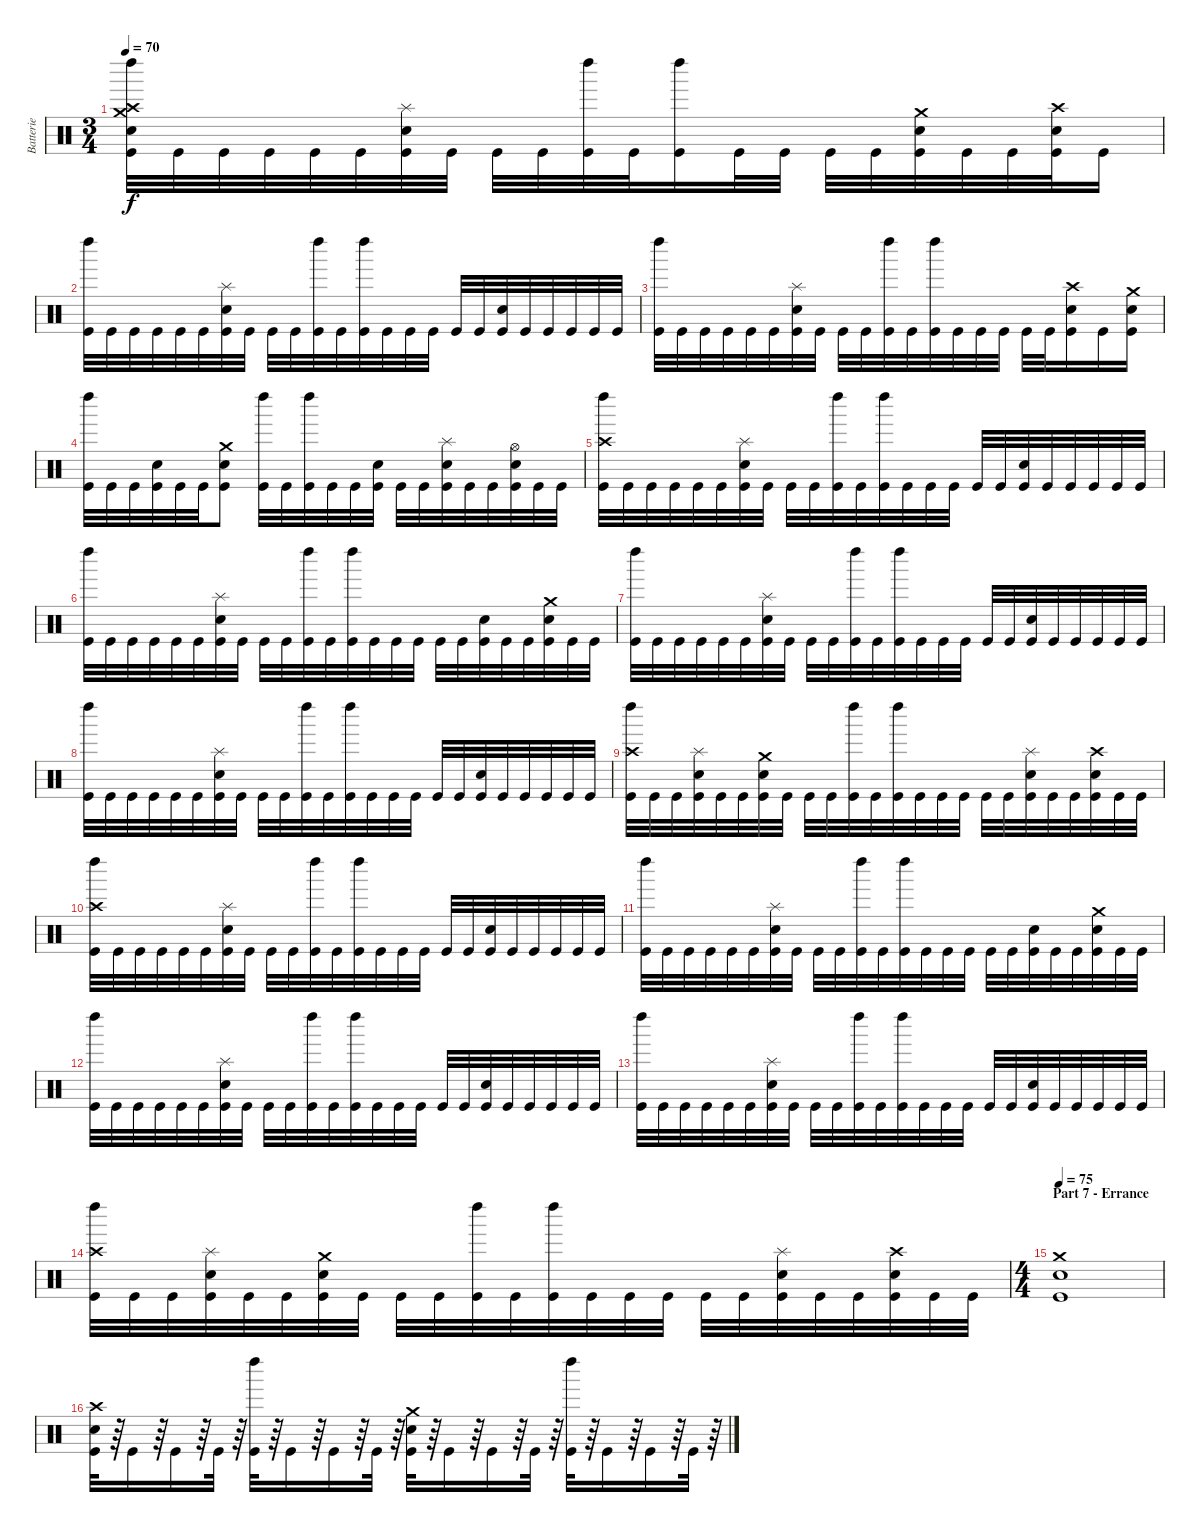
\track ("Batterie" "Batterie") {instrument percussion}
\staff {score}
\articulation defaults
\ts (3 4)
\tempo 70
\clef neutral
\ks c
("Kick (hit)" "Electric Snare (hit)" "Left Maraca (hit)" "Crash high (hit)" "Crash medium (hit)").32{dy f} "Kick (hit)".32 "Kick (hit)".32 "Kick (hit)".32 "Kick (hit)".32 "Kick (hit)".32 ("Kick (hit)" "Electric Snare (hit)" "Splash (hit)").32 "Kick (hit)".32 "Kick (hit)".32 "Kick (hit)".32 ("Kick (hit)" "Left Maraca (hit)").32 "Kick (hit)".32 ("Kick (hit)" "Left Maraca (hit)").16 "Kick (hit)".32 "Kick (hit)".32 "Kick (hit)".32 "Kick (hit)".32 ("Kick (hit)" "Electric Snare (hit)" "Crash medium (hit)").32 "Kick (hit)".32 "Kick (hit)".32 ("Kick (hit)" "Electric Snare (hit)" "Crash high (hit)").32 "Kick (hit)".16 |
("Kick (hit)" "Left Maraca (hit)").32 "Kick (hit)".32 "Kick (hit)".32 "Kick (hit)".32 "Kick (hit)".32 "Kick (hit)".32 ("Kick (hit)" "Electric Snare (hit)" "Splash (hit)").32 "Kick (hit)".32 "Kick (hit)".32 "Kick (hit)".32 ("Kick (hit)" "Left Maraca (hit)").32 "Kick (hit)".32 ("Kick (hit)" "Left Maraca (hit)").32 "Kick (hit)".32 "Kick (hit)".32 "Kick (hit)".32 "Kick (hit)".32 "Kick (hit)".32 ("Kick (hit)" "Electric Snare (hit)").32 "Kick (hit)".32 "Kick (hit)".32 "Kick (hit)".32 "Kick (hit)".32 "Kick (hit)".32 |
("Kick (hit)" "Left Maraca (hit)").32 "Kick (hit)".32 "Kick (hit)".32 "Kick (hit)".32 "Kick (hit)".32 "Kick (hit)".32 ("Kick (hit)" "Electric Snare (hit)" "Splash (hit)").32 "Kick (hit)".32 "Kick (hit)".32 "Kick (hit)".32 ("Kick (hit)" "Left Maraca (hit)").32 "Kick (hit)".32 ("Kick (hit)" "Left Maraca (hit)").32 "Kick (hit)".32 "Kick (hit)".32 "Kick (hit)".32 "Kick (hit)".32 "Kick (hit)".32 ("Kick (hit)" "Electric Snare (hit)" "Crash high (hit)").16 "Kick (hit)".16 ("Kick (hit)" "Electric Snare (hit)" "Crash medium (hit)").16 |
("Kick (hit)" "Left Maraca (hit)").32 "Kick (hit)".32 "Kick (hit)".32 ("Kick (hit)" "Electric Snare (hit)").32 "Kick (hit)".32 "Kick (hit)".32 ("Kick (hit)" "Electric Snare (hit)" "Crash medium (hit)").8 ("Kick (hit)" "Left Maraca (hit)").32 "Kick (hit)".32 ("Kick (hit)" "Left Maraca (hit)").32 "Kick (hit)".32 "Kick (hit)".32 ("Kick (hit)" "Electric Snare (hit)").32 "Kick (hit)".32 "Kick (hit)".32 ("Kick (hit)" "Electric Snare (hit)" "Splash (hit)").32 "Kick (hit)".32 "Kick (hit)".32 ("Kick (hit)" "Electric Snare (hit)" "Hi-Hat (open)").32 "Kick (hit)".32 "Kick (hit)".32 |
("Kick (hit)" "Left Maraca (hit)" "Crash high (hit)").32 "Kick (hit)".32 "Kick (hit)".32 "Kick (hit)".32 "Kick (hit)".32 "Kick (hit)".32 ("Kick (hit)" "Electric Snare (hit)" "Splash (hit)").32 "Kick (hit)".32 "Kick (hit)".32 "Kick (hit)".32 ("Kick (hit)" "Left Maraca (hit)").32 "Kick (hit)".32 ("Kick (hit)" "Left Maraca (hit)").32 "Kick (hit)".32 "Kick (hit)".32 "Kick (hit)".32 "Kick (hit)".32 "Kick (hit)".32 ("Kick (hit)" "Electric Snare (hit)").32 "Kick (hit)".32 "Kick (hit)".32 "Kick (hit)".32 "Kick (hit)".32 "Kick (hit)".32 |
("Kick (hit)" "Left Maraca (hit)").32 "Kick (hit)".32 "Kick (hit)".32 "Kick (hit)".32 "Kick (hit)".32 "Kick (hit)".32 ("Kick (hit)" "Electric Snare (hit)" "Splash (hit)").32 "Kick (hit)".32 "Kick (hit)".32 "Kick (hit)".32 ("Kick (hit)" "Left Maraca (hit)").32 "Kick (hit)".32 ("Kick (hit)" "Left Maraca (hit)").32 "Kick (hit)".32 "Kick (hit)".32 "Kick (hit)".32 "Kick (hit)".32 "Kick (hit)".32 ("Kick (hit)" "Electric Snare (hit)").32 "Kick (hit)".32 "Kick (hit)".32 ("Kick (hit)" "Electric Snare (hit)" "Crash medium (hit)").32 "Kick (hit)".32 "Kick (hit)".32 |
("Kick (hit)" "Left Maraca (hit)").32 "Kick (hit)".32 "Kick (hit)".32 "Kick (hit)".32 "Kick (hit)".32 "Kick (hit)".32 ("Kick (hit)" "Electric Snare (hit)" "Splash (hit)").32 "Kick (hit)".32 "Kick (hit)".32 "Kick (hit)".32 ("Kick (hit)" "Left Maraca (hit)").32 "Kick (hit)".32 ("Kick (hit)" "Left Maraca (hit)").32 "Kick (hit)".32 "Kick (hit)".32 "Kick (hit)".32 "Kick (hit)".32 "Kick (hit)".32 ("Kick (hit)" "Electric Snare (hit)").32 "Kick (hit)".32 "Kick (hit)".32 "Kick (hit)".32 "Kick (hit)".32 "Kick (hit)".32 |
("Kick (hit)" "Left Maraca (hit)").32 "Kick (hit)".32 "Kick (hit)".32 "Kick (hit)".32 "Kick (hit)".32 "Kick (hit)".32 ("Kick (hit)" "Electric Snare (hit)" "Splash (hit)").32 "Kick (hit)".32 "Kick (hit)".32 "Kick (hit)".32 ("Kick (hit)" "Left Maraca (hit)").32 "Kick (hit)".32 ("Kick (hit)" "Left Maraca (hit)").32 "Kick (hit)".32 "Kick (hit)".32 "Kick (hit)".32 "Kick (hit)".32 "Kick (hit)".32 ("Kick (hit)" "Electric Snare (hit)").32 "Kick (hit)".32 "Kick (hit)".32 "Kick (hit)".32 "Kick (hit)".32 "Kick (hit)".32 |
("Kick (hit)" "Left Maraca (hit)" "Crash high (hit)").32 "Kick (hit)".32 "Kick (hit)".32 ("Kick (hit)" "Electric Snare (hit)" "Splash (hit)").32 "Kick (hit)".32 "Kick (hit)".32 ("Kick (hit)" "Electric Snare (hit)" "Crash medium (hit)").32 "Kick (hit)".32 "Kick (hit)".32 "Kick (hit)".32 ("Kick (hit)" "Left Maraca (hit)").32 "Kick (hit)".32 ("Kick (hit)" "Left Maraca (hit)").32 "Kick (hit)".32 "Kick (hit)".32 "Kick (hit)".32 "Kick (hit)".32 "Kick (hit)".32 ("Kick (hit)" "Electric Snare (hit)" "Splash (hit)").32 "Kick (hit)".32 "Kick (hit)".32 ("Kick (hit)" "Electric Snare (hit)" "Crash high (hit)").32 "Kick (hit)".32 "Kick (hit)".32 |
("Kick (hit)" "Left Maraca (hit)" "Crash high (hit)").32 "Kick (hit)".32 "Kick (hit)".32 "Kick (hit)".32 "Kick (hit)".32 "Kick (hit)".32 ("Kick (hit)" "Electric Snare (hit)" "Splash (hit)").32 "Kick (hit)".32 "Kick (hit)".32 "Kick (hit)".32 ("Kick (hit)" "Left Maraca (hit)").32 "Kick (hit)".32 ("Kick (hit)" "Left Maraca (hit)").32 "Kick (hit)".32 "Kick (hit)".32 "Kick (hit)".32 "Kick (hit)".32 "Kick (hit)".32 ("Kick (hit)" "Electric Snare (hit)").32 "Kick (hit)".32 "Kick (hit)".32 "Kick (hit)".32 "Kick (hit)".32 "Kick (hit)".32 |
("Kick (hit)" "Left Maraca (hit)").32 "Kick (hit)".32 "Kick (hit)".32 "Kick (hit)".32 "Kick (hit)".32 "Kick (hit)".32 ("Kick (hit)" "Electric Snare (hit)" "Splash (hit)").32 "Kick (hit)".32 "Kick (hit)".32 "Kick (hit)".32 ("Kick (hit)" "Left Maraca (hit)").32 "Kick (hit)".32 ("Kick (hit)" "Left Maraca (hit)").32 "Kick (hit)".32 "Kick (hit)".32 "Kick (hit)".32 "Kick (hit)".32 "Kick (hit)".32 ("Kick (hit)" "Electric Snare (hit)").32 "Kick (hit)".32 "Kick (hit)".32 ("Kick (hit)" "Electric Snare (hit)" "Crash medium (hit)").32 "Kick (hit)".32 "Kick (hit)".32 |
("Kick (hit)" "Left Maraca (hit)").32 "Kick (hit)".32 "Kick (hit)".32 "Kick (hit)".32 "Kick (hit)".32 "Kick (hit)".32 ("Kick (hit)" "Electric Snare (hit)" "Splash (hit)").32 "Kick (hit)".32 "Kick (hit)".32 "Kick (hit)".32 ("Kick (hit)" "Left Maraca (hit)").32 "Kick (hit)".32 ("Kick (hit)" "Left Maraca (hit)").32 "Kick (hit)".32 "Kick (hit)".32 "Kick (hit)".32 "Kick (hit)".32 "Kick (hit)".32 ("Kick (hit)" "Electric Snare (hit)").32 "Kick (hit)".32 "Kick (hit)".32 "Kick (hit)".32 "Kick (hit)".32 "Kick (hit)".32 |
("Kick (hit)" "Left Maraca (hit)").32 "Kick (hit)".32 "Kick (hit)".32 "Kick (hit)".32 "Kick (hit)".32 "Kick (hit)".32 ("Kick (hit)" "Electric Snare (hit)" "Splash (hit)").32 "Kick (hit)".32 "Kick (hit)".32 "Kick (hit)".32 ("Kick (hit)" "Left Maraca (hit)").32 "Kick (hit)".32 ("Kick (hit)" "Left Maraca (hit)").32 "Kick (hit)".32 "Kick (hit)".32 "Kick (hit)".32 "Kick (hit)".32 "Kick (hit)".32 ("Kick (hit)" "Electric Snare (hit)").32 "Kick (hit)".32 "Kick (hit)".32 "Kick (hit)".32 "Kick (hit)".32 "Kick (hit)".32 |
("Kick (hit)" "Left Maraca (hit)" "Crash high (hit)").32 "Kick (hit)".32 "Kick (hit)".32 ("Kick (hit)" "Electric Snare (hit)" "Splash (hit)").32 "Kick (hit)".32 "Kick (hit)".32 ("Kick (hit)" "Electric Snare (hit)" "Crash medium (hit)").32 "Kick (hit)".32 "Kick (hit)".32 "Kick (hit)".32 ("Kick (hit)" "Left Maraca (hit)").32 "Kick (hit)".32 ("Kick (hit)" "Left Maraca (hit)").32 "Kick (hit)".32 "Kick (hit)".32 "Kick (hit)".32 "Kick (hit)".32 "Kick (hit)".32 ("Kick (hit)" "Electric Snare (hit)" "Splash (hit)").32 "Kick (hit)".32 "Kick (hit)".32 ("Kick (hit)" "Electric Snare (hit)" "Crash high (hit)").32 "Kick (hit)".32 "Kick (hit)".32 |
\ts (4 4)
\section ("" "Part 7 - Errance")
\tempo 75
("Kick (hit)" "Electric Snare (hit)" "Crash medium (hit)").1 |
("Kick (hit)" "Electric Snare (hit)" "Crash high (hit)").32 r.64 "Kick (hit)".16 r.64 "Kick (hit)".16 r.64 "Kick (hit)".32 r.64 ("Kick (hit)" "Left Maraca (hit)").32 r.64 "Kick (hit)".16 r.64 "Kick (hit)".16 r.64 "Kick (hit)".32 r.64 ("Kick (hit)" "Electric Snare (hit)" "Crash medium (hit)").32 r.64 "Kick (hit)".16 r.64 "Kick (hit)".16 r.64 "Kick (hit)".32 r.64 ("Kick (hit)" "Left Maraca (hit)").32 r.64 "Kick (hit)".16 r.64 "Kick (hit)".16 r.64 "Kick (hit)".32 r.64
